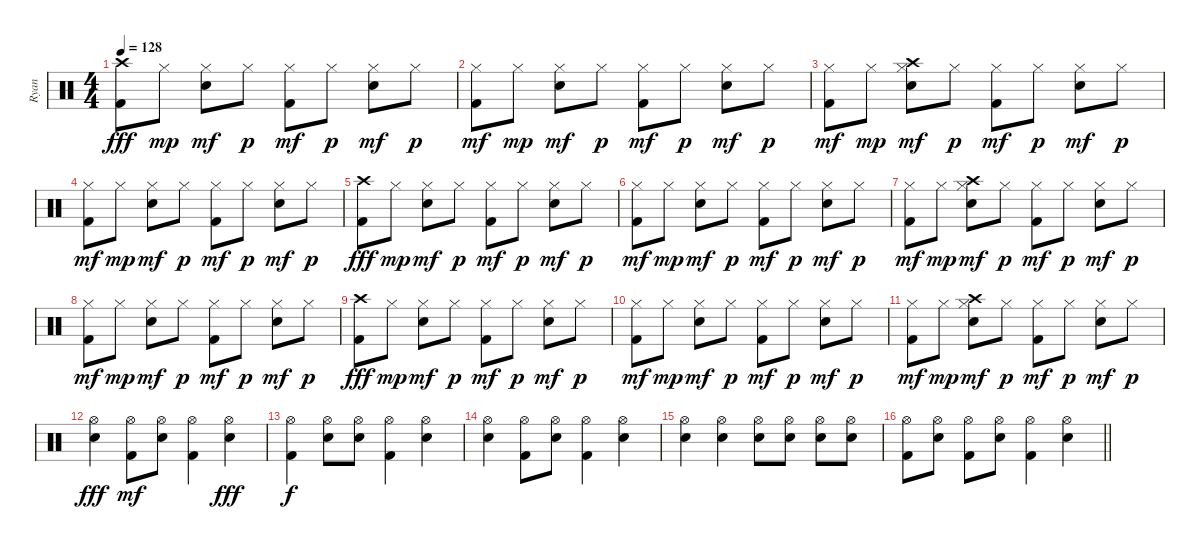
\track ("Ryan" "Ryan") {instrument percussion}
\staff {score}
\articulation defaults
\ts (4 4)
\tempo 128
\clef neutral
\ks c
("Kick (hit) 2" "Crash high (hit)").8{dy fff} "Hi-Hat (closed)".8{dy mp} ("Snare (hit) 2" "Hi-Hat (closed)").8{dy mf} "Hi-Hat (closed)".8{dy p} ("Kick (hit) 2" "Hi-Hat (closed)").8{dy mf} "Hi-Hat (closed)".8{dy p} ("Snare (hit) 2" "Hi-Hat (closed)").8{dy mf} "Hi-Hat (closed)".8{dy p} |
("Kick (hit) 2" "Hi-Hat (closed)").8{dy mf} "Hi-Hat (closed)".8{dy mp} ("Snare (hit) 2" "Hi-Hat (closed)").8{dy mf} "Hi-Hat (closed)".8{dy p} ("Kick (hit) 2" "Hi-Hat (closed)").8{dy mf} "Hi-Hat (closed)".8{dy p} ("Snare (hit) 2" "Hi-Hat (closed)").8{dy mf} "Hi-Hat (closed)".8{dy p} |
("Kick (hit) 2" "Hi-Hat (closed)").8{dy mf} "Hi-Hat (closed)".8{dy mp} ("Snare (hit) 2" "Hi-Hat (closed)" "Crash high (hit)").8{dy mf} "Hi-Hat (closed)".8{dy p} ("Kick (hit) 2" "Hi-Hat (closed)").8{dy mf} "Hi-Hat (closed)".8{dy p} ("Snare (hit) 2" "Hi-Hat (closed)").8{dy mf} "Hi-Hat (closed)".8{dy p} |
("Kick (hit) 2" "Hi-Hat (closed)").8{dy mf} "Hi-Hat (closed)".8{dy mp} ("Snare (hit) 2" "Hi-Hat (closed)").8{dy mf} "Hi-Hat (closed)".8{dy p} ("Kick (hit) 2" "Hi-Hat (closed)").8{dy mf} "Hi-Hat (closed)".8{dy p} ("Snare (hit) 2" "Hi-Hat (closed)").8{dy mf} "Hi-Hat (closed)".8{dy p} |
("Kick (hit) 2" "Crash high (hit)").8{dy fff} "Hi-Hat (closed)".8{dy mp} ("Snare (hit) 2" "Hi-Hat (closed)").8{dy mf} "Hi-Hat (closed)".8{dy p} ("Kick (hit) 2" "Hi-Hat (closed)").8{dy mf} "Hi-Hat (closed)".8{dy p} ("Snare (hit) 2" "Hi-Hat (closed)").8{dy mf} "Hi-Hat (closed)".8{dy p} |
("Kick (hit) 2" "Hi-Hat (closed)").8{dy mf} "Hi-Hat (closed)".8{dy mp} ("Snare (hit) 2" "Hi-Hat (closed)").8{dy mf} "Hi-Hat (closed)".8{dy p} ("Kick (hit) 2" "Hi-Hat (closed)").8{dy mf} "Hi-Hat (closed)".8{dy p} ("Snare (hit) 2" "Hi-Hat (closed)").8{dy mf} "Hi-Hat (closed)".8{dy p} |
("Kick (hit) 2" "Hi-Hat (closed)").8{dy mf} "Hi-Hat (closed)".8{dy mp} ("Snare (hit) 2" "Hi-Hat (closed)" "Crash high (hit)").8{dy mf} "Hi-Hat (closed)".8{dy p} ("Kick (hit) 2" "Hi-Hat (closed)").8{dy mf} "Hi-Hat (closed)".8{dy p} ("Snare (hit) 2" "Hi-Hat (closed)").8{dy mf} "Hi-Hat (closed)".8{dy p} |
("Kick (hit) 2" "Hi-Hat (closed)").8{dy mf} "Hi-Hat (closed)".8{dy mp} ("Snare (hit) 2" "Hi-Hat (closed)").8{dy mf} "Hi-Hat (closed)".8{dy p} ("Kick (hit) 2" "Hi-Hat (closed)").8{dy mf} "Hi-Hat (closed)".8{dy p} ("Snare (hit) 2" "Hi-Hat (closed)").8{dy mf} "Hi-Hat (closed)".8{dy p} |
("Kick (hit) 2" "Crash high (hit)").8{dy fff} "Hi-Hat (closed)".8{dy mp} ("Snare (hit) 2" "Hi-Hat (closed)").8{dy mf} "Hi-Hat (closed)".8{dy p} ("Kick (hit) 2" "Hi-Hat (closed)").8{dy mf} "Hi-Hat (closed)".8{dy p} ("Snare (hit) 2" "Hi-Hat (closed)").8{dy mf} "Hi-Hat (closed)".8{dy p} |
("Kick (hit) 2" "Hi-Hat (closed)").8{dy mf} "Hi-Hat (closed)".8{dy mp} ("Snare (hit) 2" "Hi-Hat (closed)").8{dy mf} "Hi-Hat (closed)".8{dy p} ("Kick (hit) 2" "Hi-Hat (closed)").8{dy mf} "Hi-Hat (closed)".8{dy p} ("Snare (hit) 2" "Hi-Hat (closed)").8{dy mf} "Hi-Hat (closed)".8{dy p} |
("Kick (hit) 2" "Hi-Hat (closed)").8{dy mf} "Hi-Hat (closed)".8{dy mp} ("Snare (hit) 2" "Hi-Hat (closed)" "Crash high (hit)").8{dy mf} "Hi-Hat (closed)".8{dy p} ("Kick (hit) 2" "Hi-Hat (closed)").8{dy mf} "Hi-Hat (closed)".8{dy p} ("Snare (hit) 2" "Hi-Hat (closed)").8{dy mf} "Hi-Hat (closed)".8{dy p} |
("Hi-Hat (open)" "Snare (hit) 2").4{dy fff} ("Kick (hit) 2" "Hi-Hat (open)").8{dy mf} ("Snare (hit) 2" "Hi-Hat (open)").8 ("Kick (hit) 2" "Hi-Hat (open)").4 ("Hi-Hat (open)" "Snare (hit) 2").4{dy fff} |
("Hi-Hat (open)" "Kick (hit) 2").4{dy f} ("Hi-Hat (open)" "Snare (hit) 2").8 ("Hi-Hat (open)" "Snare (hit) 2").8 ("Hi-Hat (open)" "Kick (hit) 2").4 ("Hi-Hat (open)" "Snare (hit) 2").4 |
("Hi-Hat (open)" "Snare (hit) 2").4 ("Hi-Hat (open)" "Kick (hit) 2").8 ("Hi-Hat (open)" "Snare (hit) 2").8 ("Hi-Hat (open)" "Kick (hit) 2").4 ("Hi-Hat (open)" "Snare (hit) 2").4 |
("Hi-Hat (open)" "Snare (hit) 2").4 ("Hi-Hat (open)" "Snare (hit) 2").4 ("Hi-Hat (open)" "Snare (hit) 2").8 ("Hi-Hat (open)" "Snare (hit) 2").8 ("Hi-Hat (open)" "Snare (hit) 2").8 ("Hi-Hat (open)" "Snare (hit) 2").8 |
\barLineRight lightlight
("Hi-Hat (open)" "Kick (hit) 2").8 ("Hi-Hat (open)" "Snare (hit) 2").8 ("Hi-Hat (open)" "Kick (hit) 2").8 ("Hi-Hat (open)" "Snare (hit) 2").8 ("Hi-Hat (open)" "Kick (hit) 2").4 ("Hi-Hat (open)" "Snare (hit) 2").4
